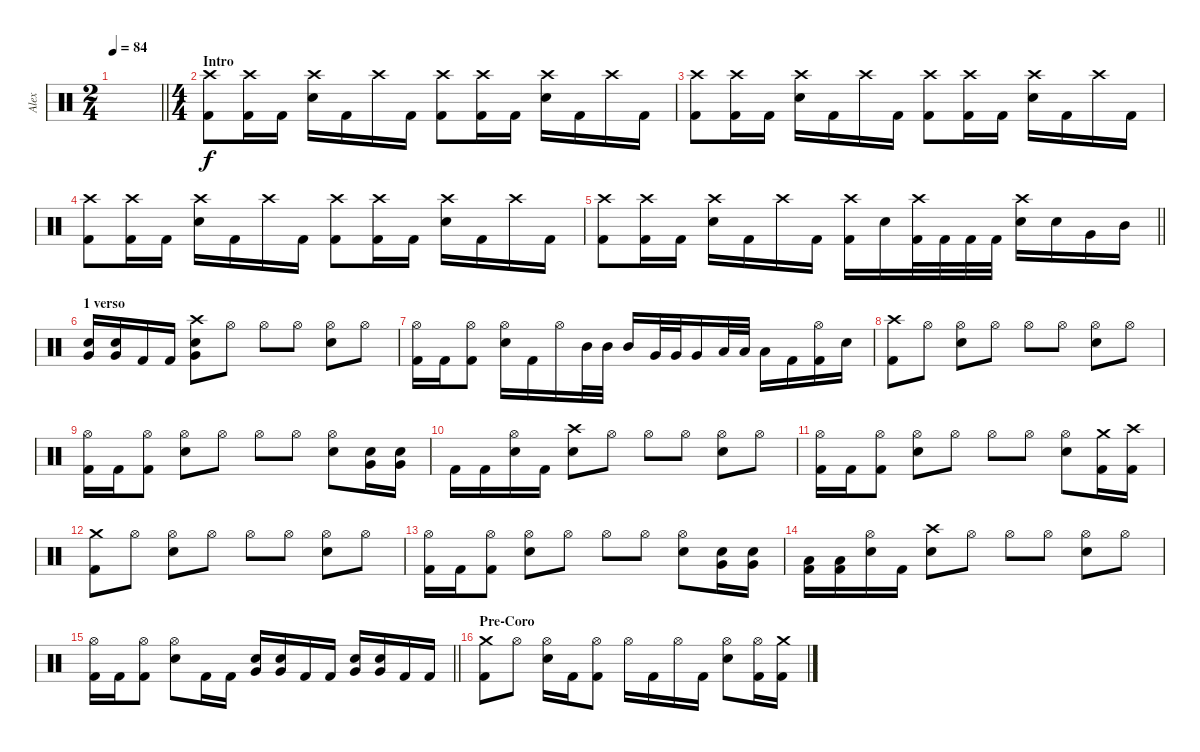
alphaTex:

\track ("Alex" "Alex") {instrument percussion}
\staff {score}
\articulation defaults
\ts (2 4)
\tempo 84
\clef neutral
\barLineRight lightlight
\ks c
|
\ts (4 4)
\section ("" "Intro")
("Crash high (hit)" "Kick (hit) 2").8 ("Crash high (hit)" "Kick (hit) 2").16 "Kick (hit) 2".16 ("Crash high (hit)" "Electric Snare (hit)").16 "Kick (hit) 2".16 "Crash high (hit)".16 "Kick (hit) 2".16 ("Crash high (hit)" "Kick (hit) 2").8 ("Crash high (hit)" "Kick (hit) 2").16 "Kick (hit) 2".16 ("Crash high (hit)" "Electric Snare (hit)").16 "Kick (hit) 2".16 "Crash high (hit)".16 "Kick (hit) 2".16 |
("Crash high (hit)" "Kick (hit) 2").8 ("Crash high (hit)" "Kick (hit) 2").16 "Kick (hit) 2".16 ("Crash high (hit)" "Electric Snare (hit)").16 "Kick (hit) 2".16 "Crash high (hit)".16 "Kick (hit) 2".16 ("Crash high (hit)" "Kick (hit) 2").8 ("Crash high (hit)" "Kick (hit) 2").16 "Kick (hit) 2".16 ("Crash high (hit)" "Electric Snare (hit)").16 "Kick (hit) 2".16 "Crash high (hit)".16 "Kick (hit) 2".16 |
("Crash high (hit)" "Kick (hit) 2").8 ("Crash high (hit)" "Kick (hit) 2").16 "Kick (hit) 2".16 ("Crash high (hit)" "Electric Snare (hit)").16 "Kick (hit) 2".16 "Crash high (hit)".16 "Kick (hit) 2".16 ("Crash high (hit)" "Kick (hit) 2").8 ("Crash high (hit)" "Kick (hit) 2").16 "Kick (hit) 2".16 ("Crash high (hit)" "Electric Snare (hit)").16 "Kick (hit) 2".16 "Crash high (hit)".16 "Kick (hit) 2".16 |
\barLineRight lightlight
("Crash high (hit)" "Kick (hit) 2").8 ("Crash high (hit)" "Kick (hit) 2").16 "Kick (hit) 2".16 ("Crash high (hit)" "Electric Snare (hit)").16 "Kick (hit) 2".16 "Crash high (hit)".16 "Kick (hit) 2".16 ("Crash high (hit)" "Kick (hit) 2").16 "Electric Snare (hit)".16 ("Crash high (hit)" "Kick (hit) 2").32 "Kick (hit) 2".32 "Kick (hit) 2".32 "Kick (hit) 2".32 ("Crash high (hit)" "Electric Snare (hit)").16 "Electric Snare (hit)".16 "Very Low Tom (hit)".16 "Mid Tom (hit)".16 |
\section ("" "1 verso")
("Very Low Tom (hit)" "Electric Snare (hit)").16 ("Very Low Tom (hit)" "Electric Snare (hit)").16 "Kick (hit) 2".16 "Kick (hit) 2".16 ("Crash high (hit)" "Very Low Tom (hit)" "Electric Snare (hit)").8 "Hi-Hat (open)".8 "Hi-Hat (open)".8 "Hi-Hat (open)".8 ("Hi-Hat (open)" "Electric Snare (hit)").8 "Hi-Hat (open)".8 |
("Hi-Hat (open)" "Kick (hit) 2").16 "Kick (hit) 2".16 ("Hi-Hat (open)" "Kick (hit) 2").8 ("Hi-Hat (open)" "Electric Snare (hit)").16 "Kick (hit) 2".16 "Hi-Hat (open)".16 "Mid Tom (hit)".32 "Mid Tom (hit)".32 "Mid Tom (hit)".16 "Very Low Tom (hit)".32 "Very Low Tom (hit)".32 "Very Low Tom (hit)".16 "Low Floor Tom (hit)".32 "Low Floor Tom (hit)".32 "Low Floor Tom (hit)".16 "Kick (hit) 2".16 ("Hi-Hat (open)" "Kick (hit) 2").16 "Electric Snare (hit)".16 |
("Crash high (hit)" "Kick (hit) 2").8 "Hi-Hat (open)".8 ("Hi-Hat (open)" "Electric Snare (hit)").8 "Hi-Hat (open)".8 "Hi-Hat (open)".8 "Hi-Hat (open)".8 ("Hi-Hat (open)" "Electric Snare (hit)").8 "Hi-Hat (open)".8 |
("Hi-Hat (open)" "Kick (hit) 2").16 "Kick (hit) 2".16 ("Hi-Hat (open)" "Kick (hit) 2").8 ("Hi-Hat (open)" "Electric Snare (hit)").8 "Hi-Hat (open)".8 "Hi-Hat (open)".8 "Hi-Hat (open)".8 ("Hi-Hat (open)" "Electric Snare (hit)").8 ("Very Low Tom (hit)" "Electric Snare (hit)").16 ("Very Low Tom (hit)" "Electric Snare (hit)").16 |
"Kick (hit) 2".16 "Kick (hit) 2".16 ("Hi-Hat (open)" "Electric Snare (hit)").16 "Kick (hit) 2".16 ("Crash high (hit)" "Electric Snare (hit)").8 "Hi-Hat (open)".8 "Hi-Hat (open)".8 "Hi-Hat (open)".8 ("Hi-Hat (open)" "Electric Snare (hit)").8 "Hi-Hat (open)".8 |
("Hi-Hat (open)" "Kick (hit) 2").16 "Kick (hit) 2".16 ("Hi-Hat (open)" "Kick (hit) 2").8 ("Hi-Hat (open)" "Electric Snare (hit)").8 "Hi-Hat (open)".8 "Hi-Hat (open)".8 "Hi-Hat (open)".8 ("Hi-Hat (open)" "Electric Snare (hit)").8 ("Crash medium (hit)" "Kick (hit) 2").16 ("Crash high (hit)" "Kick (hit) 2").16 |
("Crash medium (hit)" "Kick (hit) 2").8 "Hi-Hat (open)".8 ("Hi-Hat (open)" "Electric Snare (hit)").8 "Hi-Hat (open)".8 "Hi-Hat (open)".8 "Hi-Hat (open)".8 ("Hi-Hat (open)" "Electric Snare (hit)").8 "Hi-Hat (open)".8 |
("Hi-Hat (open)" "Kick (hit) 2").16 "Kick (hit) 2".16 ("Hi-Hat (open)" "Kick (hit) 2").8 ("Hi-Hat (open)" "Electric Snare (hit)").8 "Hi-Hat (open)".8 "Hi-Hat (open)".8 "Hi-Hat (open)".8 ("Hi-Hat (open)" "Electric Snare (hit)").8 ("Very Low Tom (hit)" "Electric Snare (hit)").16 ("Very Low Tom (hit)" "Electric Snare (hit)").16 |
("Low Floor Tom (hit)" "Kick (hit) 2").16 ("Low Floor Tom (hit)" "Kick (hit) 2").16 ("Hi-Hat (open)" "Electric Snare (hit)").16 "Kick (hit) 2".16 ("Crash high (hit)" "Electric Snare (hit)").8 "Hi-Hat (open)".8 "Hi-Hat (open)".8 "Hi-Hat (open)".8 ("Hi-Hat (open)" "Electric Snare (hit)").8 "Hi-Hat (open)".8 |
\barLineRight lightlight
("Hi-Hat (open)" "Kick (hit) 2").16 "Kick (hit) 2".16 ("Hi-Hat (open)" "Kick (hit) 2").8 ("Hi-Hat (open)" "Electric Snare (hit)").8 "Kick (hit) 2".16 "Kick (hit) 2".16 ("Very Low Tom (hit)" "Electric Snare (hit)").16 ("Very Low Tom (hit)" "Electric Snare (hit)").16 "Kick (hit) 2".16 "Kick (hit) 2".16 ("Very Low Tom (hit)" "Electric Snare (hit)").16 ("Very Low Tom (hit)" "Electric Snare (hit)").16 "Kick (hit) 2".16 "Kick (hit) 2".16 |
\section ("" "Pre-Coro")
("Crash medium (hit)" "Kick (hit) 2").8 "Hi-Hat (open)".8 ("Hi-Hat (open)" "Electric Snare (hit)").16 "Kick (hit) 2".16 ("Hi-Hat (open)" "Kick (hit) 2").8 "Hi-Hat (open)".16 "Kick (hit) 2".16 "Hi-Hat (open)".16 "Kick (hit) 2".16 ("Hi-Hat (open)" "Electric Snare (hit)").8 ("Hi-Hat (open)" "Kick (hit) 2").16 ("Crash medium (hit)" "Kick (hit) 2").16
